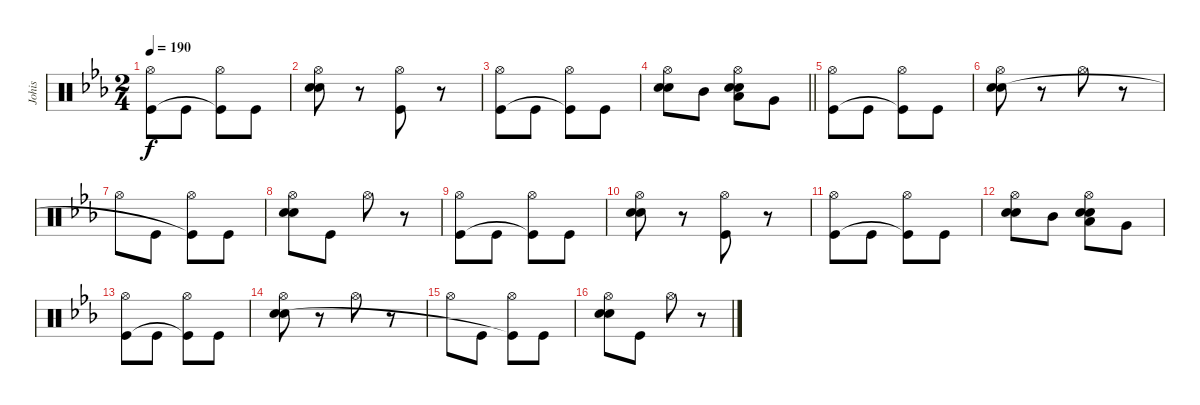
\track ("Johis" "Johis") {instrument percussion}
\staff {score}
\articulation defaults
\ts (2 4)
\tempo 190
\clef neutral
\ks eb
("Hi-Hat (open)" "Kick (hit)").8{dy f} "Kick (hit)".8 ("Hi-Hat (open)" "Kick (hit)"{t}).8 "Kick (hit)".8 |
("Hi-Hat (open)" "Snare (hit) 2" "Electric Snare (hit)").8 r.8 ("Hi-Hat (open)" "Kick (hit)").8 r.8 |
("Hi-Hat (open)" "Kick (hit)").8 "Kick (hit)".8 ("Hi-Hat (open)" "Kick (hit)"{t}).8 "Kick (hit)".8 |
\barLineRight lightlight
("Hi-Hat (open)" "Snare (hit) 2" "Electric Snare (hit)").8 "Mid Tom (hit)".8 ("Hi-Hat (open)" "Snare (hit) 2" "Low Tom (hit)" "Electric Snare (hit)").8 "Very Low Tom (hit)".8 |
("Hi-Hat (open)" "Kick (hit)").8 "Kick (hit)".8 ("Hi-Hat (open)" "Kick (hit)"{t}).8 "Kick (hit)".8 |
("Hi-Hat (open)" "Snare (hit) 2" "Electric Snare (hit)").8 r.8 "Hi-Hat (open)".8 r.8 |
"Hi-Hat (open)".8 "Kick (hit)".8 ("Hi-Hat (open)" "Kick (hit)"{t}).8 "Kick (hit)".8 |
("Hi-Hat (open)" "Snare (hit) 2" "Electric Snare (hit)").8 "Kick (hit)".8 "Hi-Hat (open)".8 r.8 |
("Hi-Hat (open)" "Kick (hit)").8 "Kick (hit)".8 ("Hi-Hat (open)" "Kick (hit)"{t}).8 "Kick (hit)".8 |
("Hi-Hat (open)" "Snare (hit) 2" "Electric Snare (hit)").8 r.8 ("Hi-Hat (open)" "Kick (hit)").8 r.8 |
("Hi-Hat (open)" "Kick (hit)").8 "Kick (hit)".8 ("Hi-Hat (open)" "Kick (hit)"{t}).8 "Kick (hit)".8 |
("Hi-Hat (open)" "Snare (hit) 2" "Electric Snare (hit)").8 "Mid Tom (hit)".8 ("Hi-Hat (open)" "Snare (hit) 2" "Low Tom (hit)" "Electric Snare (hit)").8 "Very Low Tom (hit)".8 |
("Hi-Hat (open)" "Kick (hit)").8 "Kick (hit)".8 ("Hi-Hat (open)" "Kick (hit)"{t}).8 "Kick (hit)".8 |
("Hi-Hat (open)" "Snare (hit) 2" "Electric Snare (hit)").8 r.8 "Hi-Hat (open)".8 r.8 |
"Hi-Hat (open)".8 "Kick (hit)".8 ("Hi-Hat (open)" "Kick (hit)"{t}).8 "Kick (hit)".8 |
("Hi-Hat (open)" "Snare (hit) 2" "Electric Snare (hit)").8 "Kick (hit)".8 "Hi-Hat (open)".8 r.8
